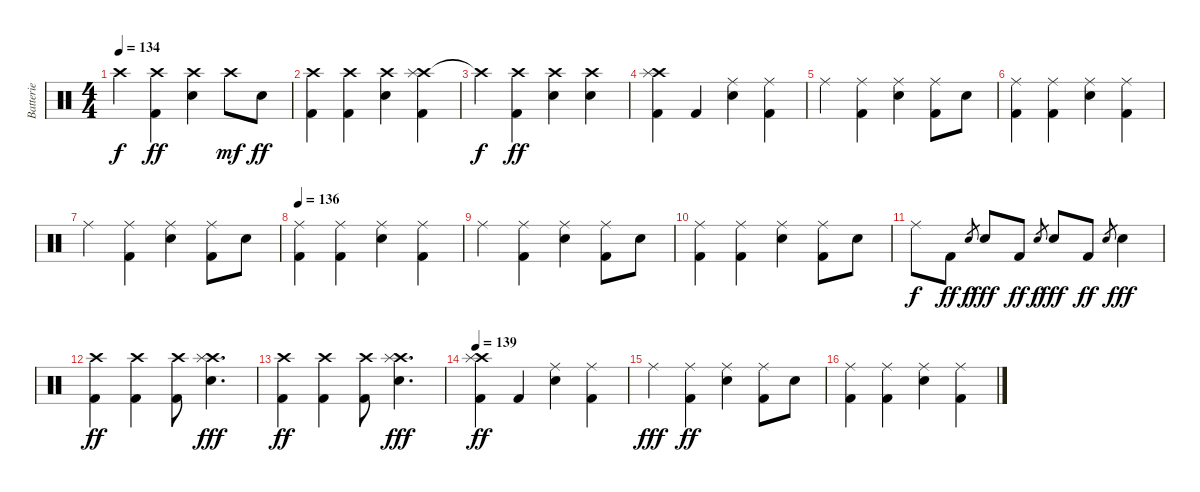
\track ("Batterie" "Batterie") {instrument percussion}
\staff {score}
\articulation defaults
\ts (4 4)
\tempo 134
\clef neutral
\ks c "Crash high (hit)"{t}.4{dy f}
("Crash high (hit)" "Kick (hit) 2").4{dy ff} ("Crash high (hit)" "Electric Snare (hit)").4 "Crash high (hit)".8{dy mf} "Electric Snare (hit)".8{dy ff} |
("Crash high (hit)" "Kick (hit) 2").4 ("Crash high (hit)" "Kick (hit) 2").4 ("Crash high (hit)" "Electric Snare (hit)").4 ("Crash high (hit)" "Splash (hit)" "Kick (hit) 2").4 |
"Crash high (hit)"{t}.4{dy f} ("Crash high (hit)" "Kick (hit) 2").4{dy ff} ("Crash high (hit)" "Electric Snare (hit)").4 ("Crash high (hit)" "Electric Snare (hit)").4 |
("Crash high (hit)" "Splash (hit)" "Kick (hit) 2").4 "Kick (hit) 2".4 ("Ride (middle)" "Electric Snare (hit)").4 ("Ride (middle)" "Kick (hit) 2").4 |
"Ride (middle)".4 ("Ride (middle)" "Kick (hit) 2").4 ("Ride (middle)" "Electric Snare (hit)").4 ("Ride (middle)" "Kick (hit) 2").8 "Electric Snare (hit)".8 |
("Ride (middle)" "Kick (hit) 2").4 ("Ride (middle)" "Kick (hit) 2").4 ("Ride (middle)" "Electric Snare (hit)").4 ("Ride (middle)" "Kick (hit) 2").4 |
"Ride (middle)".4 ("Ride (middle)" "Kick (hit) 2").4 ("Ride (middle)" "Electric Snare (hit)").4 ("Ride (middle)" "Kick (hit) 2").8 "Electric Snare (hit)".8 |
\tempo 136
("Ride (middle)" "Kick (hit) 2").4 ("Ride (middle)" "Kick (hit) 2").4 ("Ride (middle)" "Electric Snare (hit)").4 ("Ride (middle)" "Kick (hit) 2").4 |
"Ride (middle)".4 ("Ride (middle)" "Kick (hit) 2").4 ("Ride (middle)" "Electric Snare (hit)").4 ("Ride (middle)" "Kick (hit) 2").8 "Electric Snare (hit)".8 |
("Ride (middle)" "Kick (hit) 2").4 ("Ride (middle)" "Kick (hit) 2").4 ("Ride (middle)" "Electric Snare (hit)").4 ("Ride (middle)" "Kick (hit) 2").8 "Electric Snare (hit)".8 |
"Ride (middle)".8{dy f} "Kick (hit) 2".8{dy ff} "Electric Snare (hit)".8{gr dy f} "Electric Snare (hit)".8{dy fff} "Kick (hit) 2".8{dy ff} "Electric Snare (hit)".8{gr dy f} "Electric Snare (hit)".8{dy fff} "Kick (hit) 2".8{dy ff} "Electric Snare (hit)".8{gr} "Electric Snare (hit)".4{dy fff} |
("Crash high (hit)" "Kick (hit) 2").4{dy ff} ("Crash high (hit)" "Kick (hit) 2").4 ("Crash high (hit)" "Kick (hit) 2").8 ("Crash high (hit)" "Splash (hit)" "Electric Snare (hit)").4{d dy fff} |
("Crash high (hit)" "Kick (hit) 2").4{dy ff} ("Crash high (hit)" "Kick (hit) 2").4 ("Crash high (hit)" "Kick (hit) 2").8 ("Crash high (hit)" "Splash (hit)" "Electric Snare (hit)").4{d dy fff} |
\tempo 139
("Crash high (hit)" "Splash (hit)" "Kick (hit) 2").4{dy ff} "Kick (hit) 2".4 ("Ride (middle)" "Electric Snare (hit)").4 ("Ride (middle)" "Kick (hit) 2").4 |
"Ride (middle)".4{dy fff} ("Ride (middle)" "Kick (hit) 2").4{dy ff} ("Ride (middle)" "Electric Snare (hit)").4 ("Ride (middle)" "Kick (hit) 2").8 "Electric Snare (hit)".8 |
("Ride (middle)" "Kick (hit) 2").4 ("Ride (middle)" "Kick (hit) 2").4 ("Ride (middle)" "Electric Snare (hit)").4 ("Ride (middle)" "Kick (hit) 2").4
